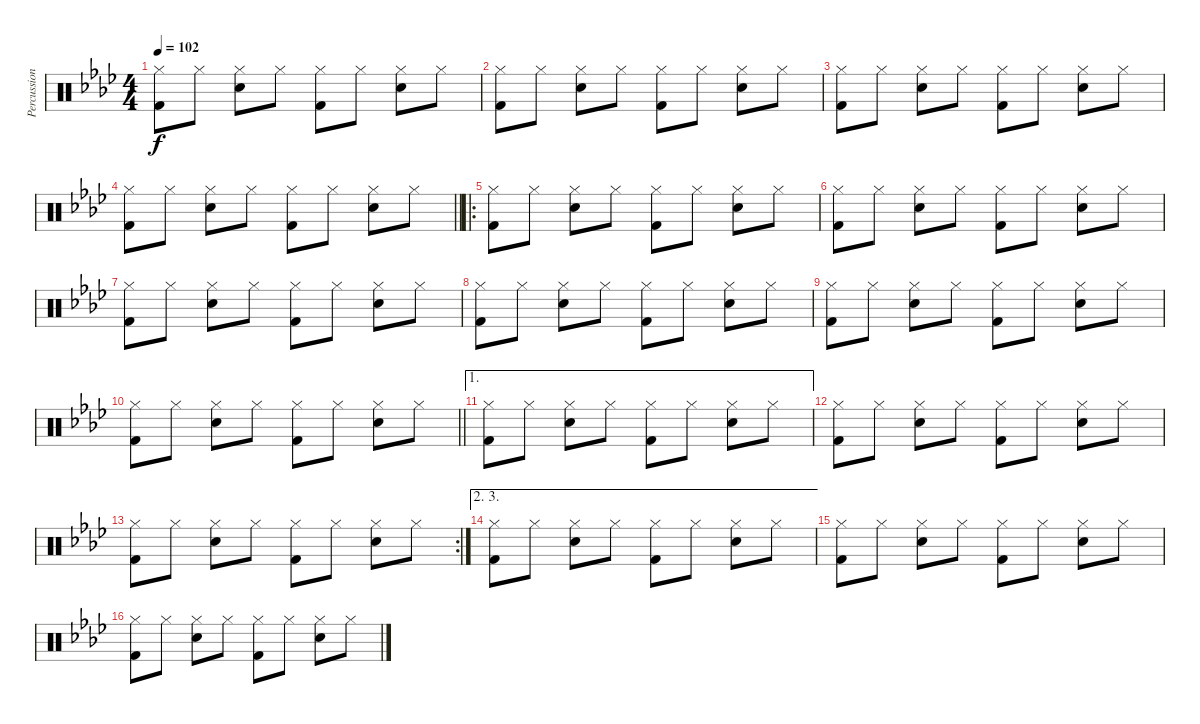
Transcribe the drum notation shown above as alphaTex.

\track ("Percussions" "Percussion") {instrument percussion}
\staff {score}
\articulation defaults
\ts (4 4)
\tempo 102
\clef neutral
\ks ab
("Hi-Hat (closed)" "Kick (hit) 2").8{dy f} "Hi-Hat (closed)".8 ("Hi-Hat (closed)" "Snare (hit) 2").8 "Hi-Hat (closed)".8 ("Hi-Hat (closed)" "Kick (hit) 2").8 "Hi-Hat (closed)".8 ("Hi-Hat (closed)" "Snare (hit) 2").8 "Hi-Hat (closed)".8 |
("Hi-Hat (closed)" "Kick (hit) 2").8 "Hi-Hat (closed)".8 ("Hi-Hat (closed)" "Snare (hit) 2").8 "Hi-Hat (closed)".8 ("Hi-Hat (closed)" "Kick (hit) 2").8 "Hi-Hat (closed)".8 ("Hi-Hat (closed)" "Snare (hit) 2").8 "Hi-Hat (closed)".8 |
("Hi-Hat (closed)" "Kick (hit) 2").8 "Hi-Hat (closed)".8 ("Hi-Hat (closed)" "Snare (hit) 2").8 "Hi-Hat (closed)".8 ("Hi-Hat (closed)" "Kick (hit) 2").8 "Hi-Hat (closed)".8 ("Hi-Hat (closed)" "Snare (hit) 2").8 "Hi-Hat (closed)".8 |
\barLineRight lightlight
("Hi-Hat (closed)" "Kick (hit) 2").8 "Hi-Hat (closed)".8 ("Hi-Hat (closed)" "Snare (hit) 2").8 "Hi-Hat (closed)".8 ("Hi-Hat (closed)" "Kick (hit) 2").8 "Hi-Hat (closed)".8 ("Hi-Hat (closed)" "Snare (hit) 2").8 "Hi-Hat (closed)".8 |
\ro
("Hi-Hat (closed)" "Kick (hit) 2").8 "Hi-Hat (closed)".8 ("Hi-Hat (closed)" "Snare (hit) 2").8 "Hi-Hat (closed)".8 ("Hi-Hat (closed)" "Kick (hit) 2").8 "Hi-Hat (closed)".8 ("Hi-Hat (closed)" "Snare (hit) 2").8 "Hi-Hat (closed)".8 |
("Hi-Hat (closed)" "Kick (hit) 2").8 "Hi-Hat (closed)".8 ("Hi-Hat (closed)" "Snare (hit) 2").8 "Hi-Hat (closed)".8 ("Hi-Hat (closed)" "Kick (hit) 2").8 "Hi-Hat (closed)".8 ("Hi-Hat (closed)" "Snare (hit) 2").8 "Hi-Hat (closed)".8 |
("Hi-Hat (closed)" "Kick (hit) 2").8 "Hi-Hat (closed)".8 ("Hi-Hat (closed)" "Snare (hit) 2").8 "Hi-Hat (closed)".8 ("Hi-Hat (closed)" "Kick (hit) 2").8 "Hi-Hat (closed)".8 ("Hi-Hat (closed)" "Snare (hit) 2").8 "Hi-Hat (closed)".8 |
("Hi-Hat (closed)" "Kick (hit) 2").8 "Hi-Hat (closed)".8 ("Hi-Hat (closed)" "Snare (hit) 2").8 "Hi-Hat (closed)".8 ("Hi-Hat (closed)" "Kick (hit) 2").8 "Hi-Hat (closed)".8 ("Hi-Hat (closed)" "Snare (hit) 2").8 "Hi-Hat (closed)".8 |
("Hi-Hat (closed)" "Kick (hit) 2").8 "Hi-Hat (closed)".8 ("Hi-Hat (closed)" "Snare (hit) 2").8 "Hi-Hat (closed)".8 ("Hi-Hat (closed)" "Kick (hit) 2").8 "Hi-Hat (closed)".8 ("Hi-Hat (closed)" "Snare (hit) 2").8 "Hi-Hat (closed)".8 |
\barLineRight lightlight
("Hi-Hat (closed)" "Kick (hit) 2").8 "Hi-Hat (closed)".8 ("Hi-Hat (closed)" "Snare (hit) 2").8 "Hi-Hat (closed)".8 ("Hi-Hat (closed)" "Kick (hit) 2").8 "Hi-Hat (closed)".8 ("Hi-Hat (closed)" "Snare (hit) 2").8 "Hi-Hat (closed)".8 |
\ae 1
("Hi-Hat (closed)" "Kick (hit) 2").8 "Hi-Hat (closed)".8 ("Hi-Hat (closed)" "Snare (hit) 2").8 "Hi-Hat (closed)".8 ("Hi-Hat (closed)" "Kick (hit) 2").8 "Hi-Hat (closed)".8 ("Hi-Hat (closed)" "Snare (hit) 2").8 "Hi-Hat (closed)".8 |
("Hi-Hat (closed)" "Kick (hit) 2").8 "Hi-Hat (closed)".8 ("Hi-Hat (closed)" "Snare (hit) 2").8 "Hi-Hat (closed)".8 ("Hi-Hat (closed)" "Kick (hit) 2").8 "Hi-Hat (closed)".8 ("Hi-Hat (closed)" "Snare (hit) 2").8 "Hi-Hat (closed)".8 |
\rc 2
("Hi-Hat (closed)" "Kick (hit) 2").8 "Hi-Hat (closed)".8 ("Hi-Hat (closed)" "Snare (hit) 2").8 "Hi-Hat (closed)".8 ("Hi-Hat (closed)" "Kick (hit) 2").8 "Hi-Hat (closed)".8 ("Hi-Hat (closed)" "Snare (hit) 2").8 "Hi-Hat (closed)".8 |
\ae (2 3)
("Hi-Hat (closed)" "Kick (hit) 2").8 "Hi-Hat (closed)".8 ("Hi-Hat (closed)" "Snare (hit) 2").8 "Hi-Hat (closed)".8 ("Hi-Hat (closed)" "Kick (hit) 2").8 "Hi-Hat (closed)".8 ("Hi-Hat (closed)" "Snare (hit) 2").8 "Hi-Hat (closed)".8 |
("Hi-Hat (closed)" "Kick (hit) 2").8 "Hi-Hat (closed)".8 ("Hi-Hat (closed)" "Snare (hit) 2").8 "Hi-Hat (closed)".8 ("Hi-Hat (closed)" "Kick (hit) 2").8 "Hi-Hat (closed)".8 ("Hi-Hat (closed)" "Snare (hit) 2").8 "Hi-Hat (closed)".8 |
("Hi-Hat (closed)" "Kick (hit) 2").8 "Hi-Hat (closed)".8 ("Hi-Hat (closed)" "Snare (hit) 2").8 "Hi-Hat (closed)".8 ("Hi-Hat (closed)" "Kick (hit) 2").8 "Hi-Hat (closed)".8 ("Hi-Hat (closed)" "Snare (hit) 2").8 "Hi-Hat (closed)".8
